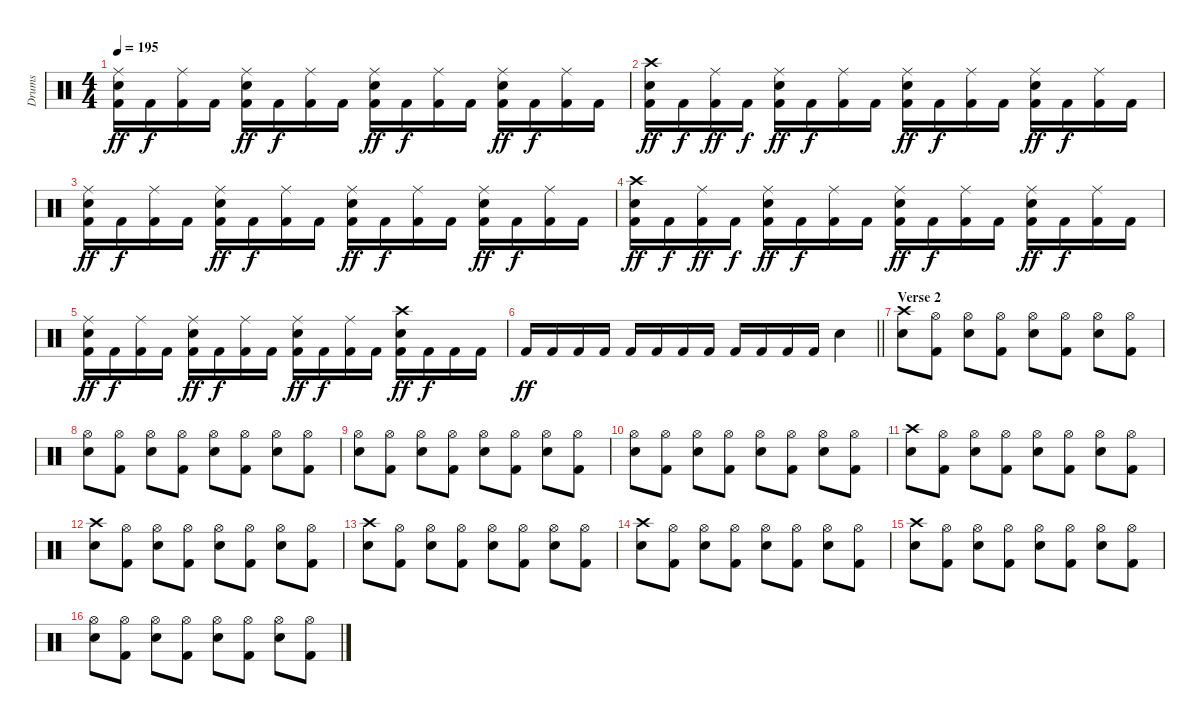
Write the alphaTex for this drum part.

\track ("Drums" "Drums") {instrument percussion}
\staff {score}
\articulation defaults
\ts (4 4)
\tempo 195
\clef neutral
\ks c
("Ride (middle)" "Snare (hit) 2" "Kick (hit) 2").16{dy ff} "Kick (hit) 2".16{dy f} ("Ride (middle)" "Kick (hit) 2").16 "Kick (hit) 2".16 ("Ride (middle)" "Snare (hit) 2" "Kick (hit) 2").16{dy ff} "Kick (hit) 2".16{dy f} ("Ride (middle)" "Kick (hit) 2").16 "Kick (hit) 2".16 ("Ride (middle)" "Snare (hit) 2" "Kick (hit) 2").16{dy ff} "Kick (hit) 2".16{dy f} ("Ride (middle)" "Kick (hit) 2").16 "Kick (hit) 2".16 ("Ride (middle)" "Snare (hit) 2" "Kick (hit) 2").16{dy ff} "Kick (hit) 2".16{dy f} ("Ride (middle)" "Kick (hit) 2").16 "Kick (hit) 2".16 |
("Crash high (hit)" "Snare (hit) 2" "Kick (hit) 2").16{dy ff} "Kick (hit) 2".16{dy f} ("Ride (middle)" "Kick (hit) 2").16{dy ff} "Kick (hit) 2".16{dy f} ("Ride (middle)" "Snare (hit) 2" "Kick (hit) 2").16{dy ff} "Kick (hit) 2".16{dy f} ("Ride (middle)" "Kick (hit) 2").16 "Kick (hit) 2".16 ("Ride (middle)" "Snare (hit) 2" "Kick (hit) 2").16{dy ff} "Kick (hit) 2".16{dy f} ("Ride (middle)" "Kick (hit) 2").16 "Kick (hit) 2".16 ("Ride (middle)" "Snare (hit) 2" "Kick (hit) 2").16{dy ff} "Kick (hit) 2".16{dy f} ("Ride (middle)" "Kick (hit) 2").16 "Kick (hit) 2".16 |
("Ride (middle)" "Snare (hit) 2" "Kick (hit) 2").16{dy ff} "Kick (hit) 2".16{dy f} ("Ride (middle)" "Kick (hit) 2").16 "Kick (hit) 2".16 ("Ride (middle)" "Snare (hit) 2" "Kick (hit) 2").16{dy ff} "Kick (hit) 2".16{dy f} ("Ride (middle)" "Kick (hit) 2").16 "Kick (hit) 2".16 ("Ride (middle)" "Snare (hit) 2" "Kick (hit) 2").16{dy ff} "Kick (hit) 2".16{dy f} ("Ride (middle)" "Kick (hit) 2").16 "Kick (hit) 2".16 ("Ride (middle)" "Snare (hit) 2" "Kick (hit) 2").16{dy ff} "Kick (hit) 2".16{dy f} ("Ride (middle)" "Kick (hit) 2").16 "Kick (hit) 2".16 |
("Crash high (hit)" "Snare (hit) 2" "Kick (hit) 2").16{dy ff} "Kick (hit) 2".16{dy f} ("Ride (middle)" "Kick (hit) 2").16{dy ff} "Kick (hit) 2".16{dy f} ("Ride (middle)" "Snare (hit) 2" "Kick (hit) 2").16{dy ff} "Kick (hit) 2".16{dy f} ("Ride (middle)" "Kick (hit) 2").16 "Kick (hit) 2".16 ("Ride (middle)" "Snare (hit) 2" "Kick (hit) 2").16{dy ff} "Kick (hit) 2".16{dy f} ("Ride (middle)" "Kick (hit) 2").16 "Kick (hit) 2".16 ("Ride (middle)" "Snare (hit) 2" "Kick (hit) 2").16{dy ff} "Kick (hit) 2".16{dy f} ("Ride (middle)" "Kick (hit) 2").16 "Kick (hit) 2".16 |
("Ride (middle)" "Snare (hit) 2" "Kick (hit) 2").16{dy ff} "Kick (hit) 2".16{dy f} ("Ride (middle)" "Kick (hit) 2").16 "Kick (hit) 2".16 ("Ride (middle)" "Snare (hit) 2" "Kick (hit) 2").16{dy ff} "Kick (hit) 2".16{dy f} ("Ride (middle)" "Kick (hit) 2").16 "Kick (hit) 2".16 ("Ride (middle)" "Snare (hit) 2" "Kick (hit) 2").16{dy ff} "Kick (hit) 2".16{dy f} ("Ride (middle)" "Kick (hit) 2").16 "Kick (hit) 2".16 ("Crash high (hit)" "Snare (hit) 2" "Kick (hit) 2").16{dy ff} "Kick (hit) 2".16{dy f} "Kick (hit) 2".16 "Kick (hit) 2".16 |
\barLineRight lightlight "Kick (hit) 2".16{dy ff} "Kick (hit) 2".16 "Kick (hit) 2".16 "Kick (hit) 2".16 "Kick (hit) 2".16 "Kick (hit) 2".16 "Kick (hit) 2".16 "Kick (hit) 2".16 "Kick (hit) 2".16 "Kick (hit) 2".16 "Kick (hit) 2".16 "Kick (hit) 2".16 "Snare (hit) 2".4
|
\section ("" "Verse 2")
("Crash high (hit)" "Snare (hit) 2").8 ("Hi-Hat (open)" "Kick (hit) 2").8 ("Hi-Hat (open)" "Snare (hit) 2").8 ("Hi-Hat (open)" "Kick (hit) 2").8 ("Hi-Hat (open)" "Snare (hit) 2").8 ("Hi-Hat (open)" "Kick (hit) 2").8 ("Hi-Hat (open)" "Snare (hit) 2").8 ("Hi-Hat (open)" "Kick (hit) 2").8 |
("Hi-Hat (open)" "Snare (hit) 2").8 ("Hi-Hat (open)" "Kick (hit) 2").8 ("Hi-Hat (open)" "Snare (hit) 2").8 ("Hi-Hat (open)" "Kick (hit) 2").8 ("Hi-Hat (open)" "Snare (hit) 2").8 ("Hi-Hat (open)" "Kick (hit) 2").8 ("Hi-Hat (open)" "Snare (hit) 2").8 ("Hi-Hat (open)" "Kick (hit) 2").8 |
("Hi-Hat (open)" "Snare (hit) 2").8 ("Hi-Hat (open)" "Kick (hit) 2").8 ("Hi-Hat (open)" "Snare (hit) 2").8 ("Hi-Hat (open)" "Kick (hit) 2").8 ("Hi-Hat (open)" "Snare (hit) 2").8 ("Hi-Hat (open)" "Kick (hit) 2").8 ("Hi-Hat (open)" "Snare (hit) 2").8 ("Hi-Hat (open)" "Kick (hit) 2").8 |
("Hi-Hat (open)" "Snare (hit) 2").8 ("Hi-Hat (open)" "Kick (hit) 2").8 ("Hi-Hat (open)" "Snare (hit) 2").8 ("Hi-Hat (open)" "Kick (hit) 2").8 ("Hi-Hat (open)" "Snare (hit) 2").8 ("Hi-Hat (open)" "Kick (hit) 2").8 ("Hi-Hat (open)" "Snare (hit) 2").8 ("Hi-Hat (open)" "Kick (hit) 2").8 |
("Crash high (hit)" "Snare (hit) 2").8 ("Hi-Hat (open)" "Kick (hit) 2").8 ("Hi-Hat (open)" "Snare (hit) 2").8 ("Hi-Hat (open)" "Kick (hit) 2").8 ("Hi-Hat (open)" "Snare (hit) 2").8 ("Hi-Hat (open)" "Kick (hit) 2").8 ("Hi-Hat (open)" "Snare (hit) 2").8 ("Hi-Hat (open)" "Kick (hit) 2").8 |
("Crash high (hit)" "Snare (hit) 2").8 ("Hi-Hat (open)" "Kick (hit) 2").8 ("Hi-Hat (open)" "Snare (hit) 2").8 ("Hi-Hat (open)" "Kick (hit) 2").8 ("Hi-Hat (open)" "Snare (hit) 2").8 ("Hi-Hat (open)" "Kick (hit) 2").8 ("Hi-Hat (open)" "Snare (hit) 2").8 ("Hi-Hat (open)" "Kick (hit) 2").8 |
("Crash high (hit)" "Snare (hit) 2").8 ("Hi-Hat (open)" "Kick (hit) 2").8 ("Hi-Hat (open)" "Snare (hit) 2").8 ("Hi-Hat (open)" "Kick (hit) 2").8 ("Hi-Hat (open)" "Snare (hit) 2").8 ("Hi-Hat (open)" "Kick (hit) 2").8 ("Hi-Hat (open)" "Snare (hit) 2").8 ("Hi-Hat (open)" "Kick (hit) 2").8 |
("Crash high (hit)" "Snare (hit) 2").8 ("Hi-Hat (open)" "Kick (hit) 2").8 ("Hi-Hat (open)" "Snare (hit) 2").8 ("Hi-Hat (open)" "Kick (hit) 2").8 ("Hi-Hat (open)" "Snare (hit) 2").8 ("Hi-Hat (open)" "Kick (hit) 2").8 ("Hi-Hat (open)" "Snare (hit) 2").8 ("Hi-Hat (open)" "Kick (hit) 2").8 |
("Crash high (hit)" "Snare (hit) 2").8 ("Hi-Hat (open)" "Kick (hit) 2").8 ("Hi-Hat (open)" "Snare (hit) 2").8 ("Hi-Hat (open)" "Kick (hit) 2").8 ("Hi-Hat (open)" "Snare (hit) 2").8 ("Hi-Hat (open)" "Kick (hit) 2").8 ("Hi-Hat (open)" "Snare (hit) 2").8 ("Hi-Hat (open)" "Kick (hit) 2").8 |
("Hi-Hat (open)" "Snare (hit) 2").8 ("Hi-Hat (open)" "Kick (hit) 2").8 ("Hi-Hat (open)" "Snare (hit) 2").8 ("Hi-Hat (open)" "Kick (hit) 2").8 ("Hi-Hat (open)" "Snare (hit) 2").8 ("Hi-Hat (open)" "Kick (hit) 2").8 ("Hi-Hat (open)" "Snare (hit) 2").8 ("Hi-Hat (open)" "Kick (hit) 2").8
